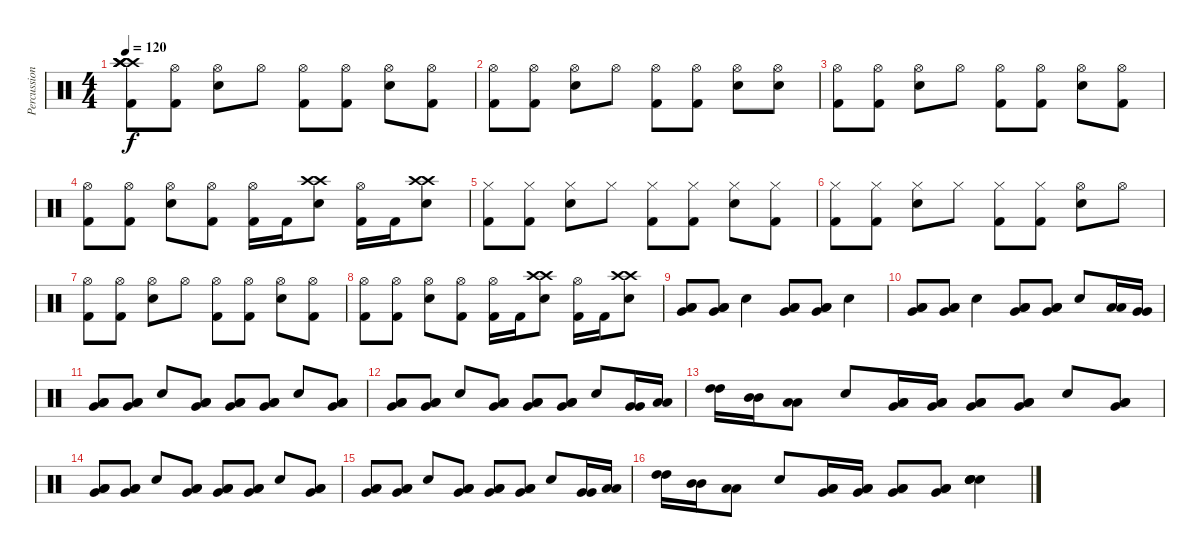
\track ("Percussion" "Percussion") {instrument percussion}
\staff {score}
\articulation defaults
\ts (4 4)
\tempo 120
\clef neutral
\ks c
("Crash high (hit)" "Crash high (hit)" "Crash high (hit)" "Crash high (hit)" "Kick (hit) 2").8{dy f} ("Hi-Hat (open)" "Kick (hit) 2").8 ("Hi-Hat (open)" "Electric Snare (hit)").8 "Hi-Hat (open)".8 ("Hi-Hat (open)" "Kick (hit) 2").8 ("Hi-Hat (open)" "Kick (hit) 2").8 ("Hi-Hat (open)" "Electric Snare (hit)").8 ("Hi-Hat (open)" "Kick (hit) 2").8 |
("Hi-Hat (open)" "Kick (hit) 2").8 ("Hi-Hat (open)" "Kick (hit) 2").8 ("Hi-Hat (open)" "Electric Snare (hit)").8 "Hi-Hat (open)".8 ("Hi-Hat (open)" "Kick (hit) 2").8 ("Hi-Hat (open)" "Kick (hit) 2").8 ("Hi-Hat (open)" "Electric Snare (hit)").8 ("Hi-Hat (open)" "Electric Snare (hit)").8 |
("Hi-Hat (open)" "Kick (hit) 2").8 ("Hi-Hat (open)" "Kick (hit) 2").8 ("Hi-Hat (open)" "Electric Snare (hit)").8 "Hi-Hat (open)".8 ("Hi-Hat (open)" "Kick (hit) 2").8 ("Hi-Hat (open)" "Kick (hit) 2").8 ("Hi-Hat (open)" "Electric Snare (hit)").8 ("Hi-Hat (open)" "Kick (hit) 2").8 |
("Hi-Hat (open)" "Kick (hit) 2").8 ("Hi-Hat (open)" "Kick (hit) 2").8 ("Hi-Hat (open)" "Electric Snare (hit)").8 ("Hi-Hat (open)" "Kick (hit) 2").8 ("Hi-Hat (open)" "Kick (hit) 2").16 "Kick (hit) 2".16 ("Crash high (hit)" "Crash high (hit)" "Electric Snare (hit)").8 ("Hi-Hat (open)" "Kick (hit) 2").16 "Kick (hit) 2".16 ("Crash high (hit)" "Crash high (hit)" "Electric Snare (hit)").8 |
("Hi-Hat (closed)" "Kick (hit) 2").8 ("Hi-Hat (closed)" "Kick (hit) 2").8 ("Hi-Hat (closed)" "Electric Snare (hit)").8 "Hi-Hat (closed)".8 ("Hi-Hat (closed)" "Kick (hit) 2").8 ("Hi-Hat (closed)" "Kick (hit) 2").8 ("Hi-Hat (closed)" "Electric Snare (hit)").8 ("Hi-Hat (closed)" "Kick (hit) 2").8 |
("Hi-Hat (closed)" "Kick (hit) 2").8 ("Hi-Hat (closed)" "Kick (hit) 2").8 ("Hi-Hat (closed)" "Electric Snare (hit)").8 "Hi-Hat (closed)".8 ("Hi-Hat (closed)" "Kick (hit) 2").8 ("Hi-Hat (closed)" "Kick (hit) 2").8 ("Hi-Hat (open)" "Electric Snare (hit)").8 "Hi-Hat (open)".8 |
("Hi-Hat (open)" "Kick (hit) 2").8 ("Hi-Hat (open)" "Kick (hit) 2").8 ("Hi-Hat (open)" "Electric Snare (hit)").8 "Hi-Hat (open)".8 ("Hi-Hat (open)" "Kick (hit) 2").8 ("Hi-Hat (open)" "Kick (hit) 2").8 ("Hi-Hat (open)" "Electric Snare (hit)").8 ("Hi-Hat (open)" "Kick (hit) 2").8 |
("Hi-Hat (open)" "Kick (hit) 2").8 ("Hi-Hat (open)" "Kick (hit) 2").8 ("Hi-Hat (open)" "Electric Snare (hit)").8 ("Hi-Hat (open)" "Kick (hit) 2").8 ("Hi-Hat (open)" "Kick (hit) 2").16 "Kick (hit) 2".16 ("Crash high (hit)" "Crash high (hit)" "Electric Snare (hit)").8 ("Hi-Hat (open)" "Kick (hit) 2").16 "Kick (hit) 2".16 ("Crash high (hit)" "Crash high (hit)" "Electric Snare (hit)").8 |
("Very Low Tom (hit)" "Low Tom (hit)" "Low Tom (hit)").8 ("Very Low Tom (hit)" "Low Tom (hit)" "Low Tom (hit)").8 "Electric Snare (hit)".4 ("Very Low Tom (hit)" "Low Tom (hit)" "Low Tom (hit)").8 ("Very Low Tom (hit)" "Low Tom (hit)" "Low Tom (hit)").8 "Electric Snare (hit)".4 |
("Very Low Tom (hit)" "Low Tom (hit)" "Low Tom (hit)").8 ("Very Low Tom (hit)" "Low Tom (hit)" "Low Tom (hit)").8 "Electric Snare (hit)".4 ("Very Low Tom (hit)" "Low Tom (hit)" "Low Tom (hit)").8 ("Very Low Tom (hit)" "Low Tom (hit)" "Low Tom (hit)").8 "Electric Snare (hit)".8 ("Low Tom (hit)" "Low Tom (hit)").16 ("Very Low Tom (hit)" "Very Low Tom (hit)").16 |
("Very Low Tom (hit)" "Low Tom (hit)" "Low Tom (hit)").8 ("Very Low Tom (hit)" "Low Tom (hit)" "Low Tom (hit)").8 "Electric Snare (hit)".8 ("Very Low Tom (hit)" "Low Tom (hit)" "Low Tom (hit)").8 ("Very Low Tom (hit)" "Low Tom (hit)" "Low Tom (hit)").8 ("Very Low Tom (hit)" "Low Tom (hit)" "Low Tom (hit)").8 "Electric Snare (hit)".8 ("Very Low Tom (hit)" "Low Tom (hit)" "Low Tom (hit)").8 |
("Very Low Tom (hit)" "Low Tom (hit)" "Low Tom (hit)").8 ("Very Low Tom (hit)" "Low Tom (hit)" "Low Tom (hit)").8 "Electric Snare (hit)".8 ("Very Low Tom (hit)" "Low Tom (hit)" "Low Tom (hit)").8 ("Very Low Tom (hit)" "Low Tom (hit)" "Low Tom (hit)").8 ("Very Low Tom (hit)" "Low Tom (hit)" "Low Tom (hit)").8 "Electric Snare (hit)".8 ("Very Low Tom (hit)" "Very Low Tom (hit)").16 ("Low Tom (hit)" "Low Tom (hit)").16 |
("High Tom (hit)" "High Tom (hit)").16 ("Mid Tom (hit)" "Mid Tom (hit)").16 ("Low Tom (hit)" "Low Tom (hit)").8 "Electric Snare (hit)".8 ("Very Low Tom (hit)" "Low Tom (hit)" "Low Tom (hit)").16 ("Very Low Tom (hit)" "Low Tom (hit)" "Low Tom (hit)").16 ("Very Low Tom (hit)" "Low Tom (hit)" "Low Tom (hit)").8 ("Very Low Tom (hit)" "Low Tom (hit)" "Low Tom (hit)").8 "Electric Snare (hit)".8 ("Very Low Tom (hit)" "Low Tom (hit)" "Low Tom (hit)").8 |
("Very Low Tom (hit)" "Low Tom (hit)" "Low Tom (hit)").8 ("Very Low Tom (hit)" "Low Tom (hit)" "Low Tom (hit)").8 "Electric Snare (hit)".8 ("Very Low Tom (hit)" "Low Tom (hit)" "Low Tom (hit)").8 ("Very Low Tom (hit)" "Low Tom (hit)" "Low Tom (hit)").8 ("Very Low Tom (hit)" "Low Tom (hit)" "Low Tom (hit)").8 "Electric Snare (hit)".8 ("Very Low Tom (hit)" "Low Tom (hit)" "Low Tom (hit)").8 |
("Very Low Tom (hit)" "Low Tom (hit)" "Low Tom (hit)").8 ("Very Low Tom (hit)" "Low Tom (hit)" "Low Tom (hit)").8 "Electric Snare (hit)".8 ("Very Low Tom (hit)" "Low Tom (hit)" "Low Tom (hit)").8 ("Very Low Tom (hit)" "Low Tom (hit)" "Low Tom (hit)").8 ("Very Low Tom (hit)" "Low Tom (hit)" "Low Tom (hit)").8 "Electric Snare (hit)".8 ("Very Low Tom (hit)" "Very Low Tom (hit)").16 ("Low Tom (hit)" "Low Tom (hit)").16 |
("High Tom (hit)" "High Tom (hit)").16 ("Mid Tom (hit)" "Mid Tom (hit)").16 ("Low Tom (hit)" "Low Tom (hit)").8 "Electric Snare (hit)".8 ("Very Low Tom (hit)" "Low Tom (hit)" "Low Tom (hit)").16 ("Very Low Tom (hit)" "Low Tom (hit)" "Low Tom (hit)").16 ("Very Low Tom (hit)" "Low Tom (hit)" "Low Tom (hit)").8 ("Very Low Tom (hit)" "Low Tom (hit)" "Low Tom (hit)").8 ("Electric Snare (hit)" "Electric Snare (hit)" "Electric Snare (hit)" "Electric Snare (hit)").4
